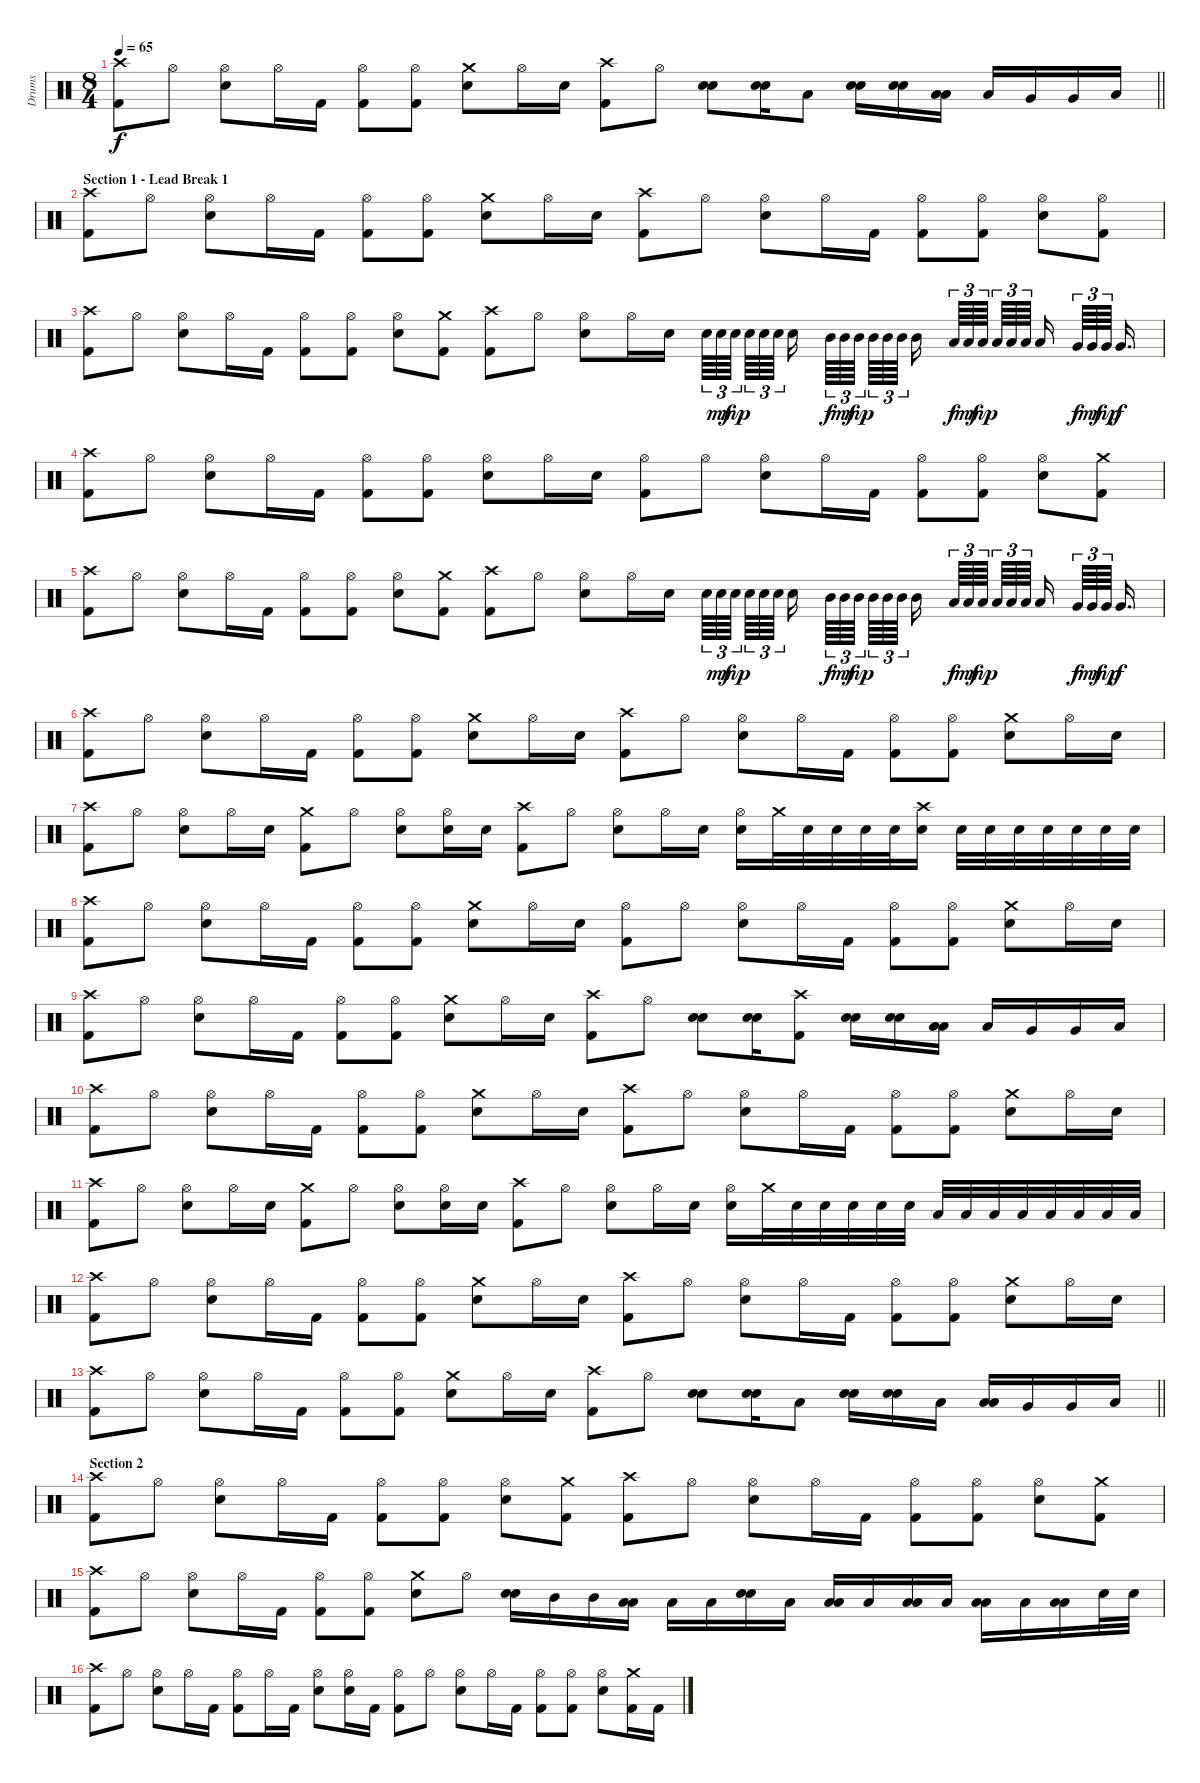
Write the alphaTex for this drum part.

\track ("Drums" "Drums") {instrument percussion}
\staff {score}
\articulation defaults
\ts (8 4)
\tempo 65
\clef neutral
\barLineRight lightlight
\ks c
("Crash high (hit)" "Kick (hit) 2").8{dy f} "Hi-Hat (open)".8 ("Hi-Hat (open)" "Electric Snare (hit)").8 "Hi-Hat (open)".16 "Kick (hit) 2".16 ("Hi-Hat (open)" "Kick (hit) 2").8 ("Hi-Hat (open)" "Kick (hit) 2").8 ("Crash medium (hit)" "Electric Snare (hit)").8 "Hi-Hat (open)".16 "Electric Snare (hit)".16 ("Crash high (hit)" "Kick (hit) 2").8 "Hi-Hat (open)".8 ("Electric Snare (hit)" "Electric Snare (hit)").8{bu 60} ("Electric Snare (hit)" "Electric Snare (hit)").16{bu 60} "Low Tom (hit)".8 ("Electric Snare (hit)" "Electric Snare (hit)").16{bu 60} ("Electric Snare (hit)" "Electric Snare (hit)").16{bu 60} ("Low Tom (hit)" "Low Tom (hit)").16{bu 60} "Low Tom (hit)".16 "Very Low Tom (hit)".16 "Very Low Tom (hit)".16 "Low Tom (hit)".16 |
\section ("" "Section 1 - Lead Break 1")
("Crash high (hit)" "Kick (hit) 2").8 "Hi-Hat (open)".8 ("Hi-Hat (open)" "Electric Snare (hit)").8 "Hi-Hat (open)".16 "Kick (hit) 2".16 ("Hi-Hat (open)" "Kick (hit) 2").8 ("Hi-Hat (open)" "Kick (hit) 2").8 ("Crash medium (hit)" "Electric Snare (hit)").8 "Hi-Hat (open)".16 "Electric Snare (hit)".16 ("Crash high (hit)" "Kick (hit) 2").8 "Hi-Hat (open)".8 ("Hi-Hat (open)" "Electric Snare (hit)").8 "Hi-Hat (open)".16 "Kick (hit) 2".16 ("Hi-Hat (open)" "Kick (hit) 2").8 ("Hi-Hat (open)" "Kick (hit) 2").8 ("Hi-Hat (open)" "Electric Snare (hit)").8 ("Hi-Hat (open)" "Kick (hit) 2").8 |
("Crash high (hit)" "Kick (hit) 2").8 "Hi-Hat (open)".8 ("Hi-Hat (open)" "Electric Snare (hit)").8 "Hi-Hat (open)".16 "Kick (hit) 2".16 ("Hi-Hat (open)" "Kick (hit) 2").8 ("Hi-Hat (open)" "Kick (hit) 2").8 ("Hi-Hat (open)" "Electric Snare (hit)").8 ("Crash medium (hit)" "Kick (hit) 2").8 ("Crash high (hit)" "Kick (hit) 2").8 "Hi-Hat (open)".8 ("Hi-Hat (open)" "Electric Snare (hit)").8 "Hi-Hat (open)".16 "Electric Snare (hit)".16 "Electric Snare (hit)".64{tu (3 2)} "Electric Snare (hit)".64{tu (3 2) dy mf} "Electric Snare (hit)".64{tu (3 2) dy mp} "Electric Snare (hit)".64{tu (3 2)} "Electric Snare (hit)".64{tu (3 2)} "Electric Snare (hit)".64{tu (3 2)} "Electric Snare (hit)".16 "Mid Tom (hit)".64{tu (3 2) dy f} "Mid Tom (hit)".64{tu (3 2) dy mf} "Mid Tom (hit)".64{tu (3 2) dy mp} "Mid Tom (hit)".64{tu (3 2)} "Mid Tom (hit)".64{tu (3 2)} "Mid Tom (hit)".64{tu (3 2)} "Mid Tom (hit)".16 "Low Tom (hit)".64{tu (3 2) dy f} "Low Tom (hit)".64{tu (3 2) dy mf} "Low Tom (hit)".64{tu (3 2) dy mp} "Low Tom (hit)".64{tu (3 2)} "Low Tom (hit)".64{tu (3 2)} "Low Tom (hit)".64{tu (3 2)} "Low Tom (hit)".16 "Very Low Tom (hit)".64{tu (3 2) dy f} "Very Low Tom (hit)".64{tu (3 2) dy mf} "Very Low Tom (hit)".64{tu (3 2) dy mp} "Very Low Tom (hit)".16{d dy f} |
("Crash high (hit)" "Kick (hit) 2").8 "Hi-Hat (open)".8 ("Hi-Hat (open)" "Electric Snare (hit)").8 "Hi-Hat (open)".16 "Kick (hit) 2".16 ("Hi-Hat (open)" "Kick (hit) 2").8 ("Hi-Hat (open)" "Kick (hit) 2").8 ("Hi-Hat (open)" "Electric Snare (hit)").8 "Hi-Hat (open)".16 "Electric Snare (hit)".16 ("Hi-Hat (open)" "Kick (hit) 2").8 "Hi-Hat (open)".8 ("Hi-Hat (open)" "Electric Snare (hit)").8 "Hi-Hat (open)".16 "Kick (hit) 2".16 ("Hi-Hat (open)" "Kick (hit) 2").8 ("Hi-Hat (open)" "Kick (hit) 2").8 ("Hi-Hat (open)" "Electric Snare (hit)").8 ("Crash medium (hit)" "Kick (hit) 2").8 |
("Crash high (hit)" "Kick (hit) 2").8 "Hi-Hat (open)".8 ("Hi-Hat (open)" "Electric Snare (hit)").8 "Hi-Hat (open)".16 "Kick (hit) 2".16 ("Hi-Hat (open)" "Kick (hit) 2").8 ("Hi-Hat (open)" "Kick (hit) 2").8 ("Hi-Hat (open)" "Electric Snare (hit)").8 ("Crash medium (hit)" "Kick (hit) 2").8 ("Crash high (hit)" "Kick (hit) 2").8 "Hi-Hat (open)".8 ("Hi-Hat (open)" "Electric Snare (hit)").8 "Hi-Hat (open)".16 "Electric Snare (hit)".16 "Electric Snare (hit)".64{tu (3 2)} "Electric Snare (hit)".64{tu (3 2) dy mf} "Electric Snare (hit)".64{tu (3 2) dy mp} "Electric Snare (hit)".64{tu (3 2)} "Electric Snare (hit)".64{tu (3 2)} "Electric Snare (hit)".64{tu (3 2)} "Electric Snare (hit)".16 "Mid Tom (hit)".64{tu (3 2) dy f} "Mid Tom (hit)".64{tu (3 2) dy mf} "Mid Tom (hit)".64{tu (3 2) dy mp} "Mid Tom (hit)".64{tu (3 2)} "Mid Tom (hit)".64{tu (3 2)} "Mid Tom (hit)".64{tu (3 2)} "Mid Tom (hit)".16 "Low Tom (hit)".64{tu (3 2) dy f} "Low Tom (hit)".64{tu (3 2) dy mf} "Low Tom (hit)".64{tu (3 2) dy mp} "Low Tom (hit)".64{tu (3 2)} "Low Tom (hit)".64{tu (3 2)} "Low Tom (hit)".64{tu (3 2)} "Low Tom (hit)".16 "Very Low Tom (hit)".64{tu (3 2) dy f} "Very Low Tom (hit)".64{tu (3 2) dy mf} "Very Low Tom (hit)".64{tu (3 2) dy mp} "Very Low Tom (hit)".16{d dy f} |
("Crash high (hit)" "Kick (hit) 2").8 "Hi-Hat (open)".8 ("Hi-Hat (open)" "Electric Snare (hit)").8 "Hi-Hat (open)".16 "Kick (hit) 2".16 ("Hi-Hat (open)" "Kick (hit) 2").8 ("Hi-Hat (open)" "Kick (hit) 2").8 ("Crash medium (hit)" "Electric Snare (hit)").8 "Hi-Hat (open)".16 "Electric Snare (hit)".16 ("Crash high (hit)" "Kick (hit) 2").8 "Hi-Hat (open)".8 ("Hi-Hat (open)" "Electric Snare (hit)").8 "Hi-Hat (open)".16 "Kick (hit) 2".16 ("Hi-Hat (open)" "Kick (hit) 2").8 ("Hi-Hat (open)" "Kick (hit) 2").8 ("Crash medium (hit)" "Electric Snare (hit)").8 "Hi-Hat (open)".16 "Electric Snare (hit)".16 |
("Crash high (hit)" "Kick (hit) 2").8 "Hi-Hat (open)".8 ("Hi-Hat (open)" "Electric Snare (hit)").8 "Hi-Hat (open)".16 "Electric Snare (hit)".16 ("Crash medium (hit)" "Kick (hit) 2").8 "Hi-Hat (open)".8 ("Hi-Hat (open)" "Electric Snare (hit)").8 ("Hi-Hat (open)" "Electric Snare (hit)").16 "Electric Snare (hit)".16 ("Crash high (hit)" "Kick (hit) 2").8 "Hi-Hat (open)".8 ("Hi-Hat (open)" "Electric Snare (hit)").8 "Hi-Hat (open)".16 "Electric Snare (hit)".16 ("Hi-Hat (open)" "Electric Snare (hit)").16 "Crash medium (hit)".32 "Electric Snare (hit)".32 "Electric Snare (hit)".32 "Electric Snare (hit)".32 "Electric Snare (hit)".32 ("Crash high (hit)" "Electric Snare (hit)").16 "Electric Snare (hit)".32 "Electric Snare (hit)".32 "Electric Snare (hit)".32 "Electric Snare (hit)".32 "Electric Snare (hit)".32 "Electric Snare (hit)".32 "Electric Snare (hit)".32 |
("Crash high (hit)" "Kick (hit) 2").8 "Hi-Hat (open)".8 ("Hi-Hat (open)" "Electric Snare (hit)").8 "Hi-Hat (open)".16 "Kick (hit) 2".16 ("Hi-Hat (open)" "Kick (hit) 2").8 ("Hi-Hat (open)" "Kick (hit) 2").8 ("Crash medium (hit)" "Electric Snare (hit)").8 "Hi-Hat (open)".16 "Electric Snare (hit)".16 ("Hi-Hat (open)" "Kick (hit) 2").8 "Hi-Hat (open)".8 ("Hi-Hat (open)" "Electric Snare (hit)").8 "Hi-Hat (open)".16 "Kick (hit) 2".16 ("Hi-Hat (open)" "Kick (hit) 2").8 ("Hi-Hat (open)" "Kick (hit) 2").8 ("Crash medium (hit)" "Electric Snare (hit)").8 "Hi-Hat (open)".16 "Electric Snare (hit)".16 |
("Crash high (hit)" "Kick (hit) 2").8 "Hi-Hat (open)".8 ("Hi-Hat (open)" "Electric Snare (hit)").8 "Hi-Hat (open)".16 "Kick (hit) 2".16 ("Hi-Hat (open)" "Kick (hit) 2").8 ("Hi-Hat (open)" "Kick (hit) 2").8 ("Crash medium (hit)" "Electric Snare (hit)").8 "Hi-Hat (open)".16 "Electric Snare (hit)".16 ("Crash high (hit)" "Kick (hit) 2").8 "Hi-Hat (open)".8 ("Electric Snare (hit)" "Electric Snare (hit)").8{bu 60} ("Electric Snare (hit)" "Electric Snare (hit)").16{bu 60} ("Crash high (hit)" "Kick (hit) 2").8 ("Electric Snare (hit)" "Electric Snare (hit)").16{bu 60} ("Electric Snare (hit)" "Electric Snare (hit)").16{bu 60} ("Low Tom (hit)" "Low Tom (hit)").16{bu 60} "Low Tom (hit)".16 "Very Low Tom (hit)".16 "Very Low Tom (hit)".16 "Low Tom (hit)".16 |
("Crash high (hit)" "Kick (hit) 2").8 "Hi-Hat (open)".8 ("Hi-Hat (open)" "Electric Snare (hit)").8 "Hi-Hat (open)".16 "Kick (hit) 2".16 ("Hi-Hat (open)" "Kick (hit) 2").8 ("Hi-Hat (open)" "Kick (hit) 2").8 ("Crash medium (hit)" "Electric Snare (hit)").8 "Hi-Hat (open)".16 "Electric Snare (hit)".16 ("Crash high (hit)" "Kick (hit) 2").8 "Hi-Hat (open)".8 ("Hi-Hat (open)" "Electric Snare (hit)").8 "Hi-Hat (open)".16 "Kick (hit) 2".16 ("Hi-Hat (open)" "Kick (hit) 2").8 ("Hi-Hat (open)" "Kick (hit) 2").8 ("Crash medium (hit)" "Electric Snare (hit)").8 "Hi-Hat (open)".16 "Electric Snare (hit)".16 |
("Crash high (hit)" "Kick (hit) 2").8 "Hi-Hat (open)".8 ("Hi-Hat (open)" "Electric Snare (hit)").8 "Hi-Hat (open)".16 "Electric Snare (hit)".16 ("Crash medium (hit)" "Kick (hit) 2").8 "Hi-Hat (open)".8 ("Hi-Hat (open)" "Electric Snare (hit)").8 ("Hi-Hat (open)" "Electric Snare (hit)").16 "Electric Snare (hit)".16 ("Crash high (hit)" "Kick (hit) 2").8 "Hi-Hat (open)".8 ("Hi-Hat (open)" "Electric Snare (hit)").8 "Hi-Hat (open)".16 "Electric Snare (hit)".16 ("Hi-Hat (open)" "Electric Snare (hit)").16 "Crash medium (hit)".32 "Electric Snare (hit)".32 "Electric Snare (hit)".32 "Electric Snare (hit)".32 "Electric Snare (hit)".32 "Electric Snare (hit)".32 "Low Tom (hit)".32 "Low Tom (hit)".32 "Low Tom (hit)".32 "Low Tom (hit)".32 "Low Tom (hit)".32 "Low Tom (hit)".32 "Low Tom (hit)".32 "Low Tom (hit)".32 |
("Crash high (hit)" "Kick (hit) 2").8 "Hi-Hat (open)".8 ("Hi-Hat (open)" "Electric Snare (hit)").8 "Hi-Hat (open)".16 "Kick (hit) 2".16 ("Hi-Hat (open)" "Kick (hit) 2").8 ("Hi-Hat (open)" "Kick (hit) 2").8 ("Crash medium (hit)" "Electric Snare (hit)").8 "Hi-Hat (open)".16 "Electric Snare (hit)".16 ("Crash high (hit)" "Kick (hit) 2").8 "Hi-Hat (open)".8 ("Hi-Hat (open)" "Electric Snare (hit)").8 "Hi-Hat (open)".16 "Kick (hit) 2".16 ("Hi-Hat (open)" "Kick (hit) 2").8 ("Hi-Hat (open)" "Kick (hit) 2").8 ("Crash medium (hit)" "Electric Snare (hit)").8 "Hi-Hat (open)".16 "Electric Snare (hit)".16 |
\barLineRight lightlight
("Crash high (hit)" "Kick (hit) 2").8 "Hi-Hat (open)".8 ("Hi-Hat (open)" "Electric Snare (hit)").8 "Hi-Hat (open)".16 "Kick (hit) 2".16 ("Hi-Hat (open)" "Kick (hit) 2").8 ("Hi-Hat (open)" "Kick (hit) 2").8 ("Crash medium (hit)" "Electric Snare (hit)").8 "Hi-Hat (open)".16 "Electric Snare (hit)".16 ("Crash high (hit)" "Kick (hit) 2").8 "Hi-Hat (open)".8 ("Electric Snare (hit)" "Electric Snare (hit)").8{bu 60} ("Electric Snare (hit)" "Electric Snare (hit)").16{bu 60} "Low Tom (hit)".8 ("Electric Snare (hit)" "Electric Snare (hit)").16{bu 60} ("Electric Snare (hit)" "Electric Snare (hit)").16{bu 60} "Low Tom (hit)".16 ("Low Tom (hit)" "Low Tom (hit)").16{bu 60} "Very Low Tom (hit)".16 "Very Low Tom (hit)".16 "Low Tom (hit)".16 |
\section ("" "Section 2")
("Crash high (hit)" "Kick (hit) 2").8 "Hi-Hat (open)".8 ("Hi-Hat (open)" "Electric Snare (hit)").8 "Hi-Hat (open)".16 "Kick (hit) 2".16 ("Hi-Hat (open)" "Kick (hit) 2").8 ("Hi-Hat (open)" "Kick (hit) 2").8 ("Hi-Hat (open)" "Electric Snare (hit)").8 ("Crash medium (hit)" "Kick (hit) 2").8 ("Crash high (hit)" "Kick (hit) 2").8 "Hi-Hat (open)".8 ("Hi-Hat (open)" "Electric Snare (hit)").8 "Hi-Hat (open)".16 "Kick (hit) 2".16 ("Hi-Hat (open)" "Kick (hit) 2").8 ("Hi-Hat (open)" "Kick (hit) 2").8 ("Hi-Hat (open)" "Electric Snare (hit)").8 ("Crash medium (hit)" "Kick (hit) 2").8 |
("Crash high (hit)" "Kick (hit) 2").8 "Hi-Hat (open)".8 ("Hi-Hat (open)" "Electric Snare (hit)").8 "Hi-Hat (open)".16 "Kick (hit) 2".16 ("Hi-Hat (open)" "Kick (hit) 2").8 ("Hi-Hat (open)" "Kick (hit) 2").8 ("Crash medium (hit)" "Electric Snare (hit)").8 "Hi-Hat (open)".8 ("Electric Snare (hit)" "Electric Snare (hit)").16{bu 120} "Mid Tom (hit)".16 "Mid Tom (hit)".16 ("Low Tom (hit)" "Low Tom (hit)").16{bu 120} "Low Tom (hit)".16 "Low Tom (hit)".16 ("Electric Snare (hit)" "Electric Snare (hit)").16{bu 120} "Low Tom (hit)".16 ("Low Tom (hit)" "Low Tom (hit)").16{bu 120} "Low Tom (hit)".16 ("Low Tom (hit)" "Low Tom (hit)").16{bu 120} "Low Tom (hit)".16 ("Low Tom (hit)" "Low Tom (hit)").16{bu 120} "Low Tom (hit)".16 ("Low Tom (hit)" "Low Tom (hit)").16{bu 120} "Electric Snare (hit)".32 "Electric Snare (hit)".32 |
("Crash high (hit)" "Kick (hit) 2").8 "Hi-Hat (open)".8 ("Hi-Hat (open)" "Electric Snare (hit)").8 "Hi-Hat (open)".16 "Kick (hit) 2".16 ("Hi-Hat (open)" "Kick (hit) 2").8 "Hi-Hat (open)".16 "Kick (hit) 2".16 ("Hi-Hat (open)" "Electric Snare (hit)").8 ("Hi-Hat (open)" "Electric Snare (hit)").16 "Kick (hit) 2".16 ("Hi-Hat (open)" "Kick (hit) 2").8 "Hi-Hat (open)".8 ("Hi-Hat (open)" "Electric Snare (hit)").8 "Hi-Hat (open)".16 "Kick (hit) 2".16 ("Hi-Hat (open)" "Kick (hit) 2").8 ("Hi-Hat (open)" "Kick (hit) 2").8 ("Hi-Hat (open)" "Electric Snare (hit)").8 ("Crash medium (hit)" "Kick (hit) 2").16 "Kick (hit) 2".16
